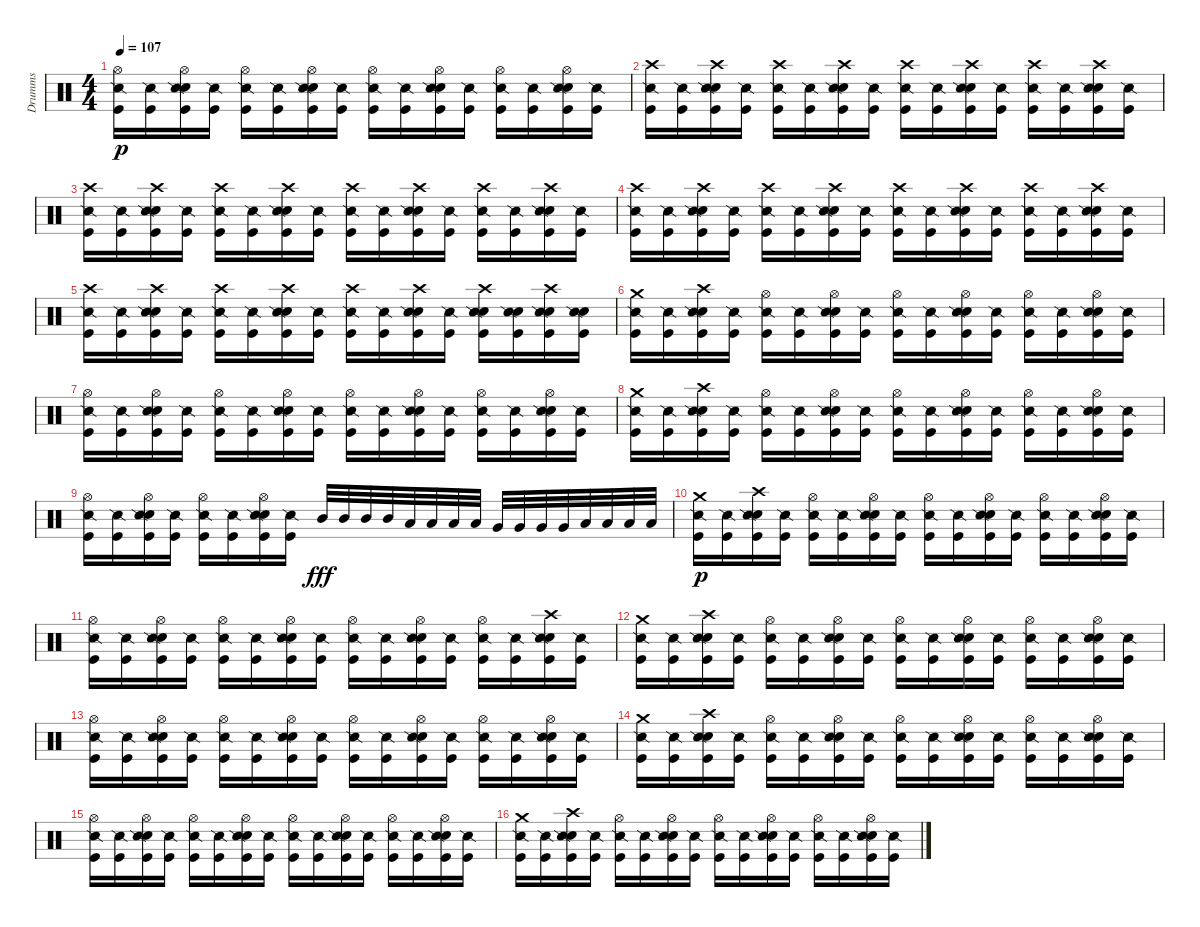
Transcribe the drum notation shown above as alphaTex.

\track ("Drumms" "Drumms") {instrument percussion}
\staff {score}
\articulation defaults
\ts (4 4)
\tempo 107
\clef neutral
\ks c
("Hi-Hat (open)" "Snare (side stick) 2" "Kick (hit)").16{dy p} ("Snare (side stick) 2" "Kick (hit)").16 ("Hi-Hat (open)" "Electric Snare (hit)" "Snare (side stick) 2" "Kick (hit)").16 ("Snare (side stick) 2" "Kick (hit)").16 ("Hi-Hat (open)" "Snare (side stick) 2" "Kick (hit)").16 ("Snare (side stick) 2" "Kick (hit)").16 ("Hi-Hat (open)" "Electric Snare (hit)" "Snare (side stick) 2" "Kick (hit)").16 ("Snare (side stick) 2" "Kick (hit)").16 ("Hi-Hat (open)" "Snare (side stick) 2" "Kick (hit)").16 ("Snare (side stick) 2" "Kick (hit)").16 ("Hi-Hat (open)" "Electric Snare (hit)" "Snare (side stick) 2" "Kick (hit)").16 ("Snare (side stick) 2" "Kick (hit)").16 ("Hi-Hat (open)" "Snare (side stick) 2" "Kick (hit)").16 ("Snare (side stick) 2" "Kick (hit)").16 ("Hi-Hat (open)" "Electric Snare (hit)" "Snare (side stick) 2" "Kick (hit)").16 ("Snare (side stick) 2" "Kick (hit)").16 |
\section ("" "")
("Crash high (hit)" "Snare (side stick) 2" "Kick (hit)").16 ("Snare (side stick) 2" "Kick (hit)").16 ("Crash high (hit)" "Electric Snare (hit)" "Snare (side stick) 2" "Kick (hit)").16 ("Snare (side stick) 2" "Kick (hit)").16 ("Crash high (hit)" "Snare (side stick) 2" "Kick (hit)").16 ("Snare (side stick) 2" "Kick (hit)").16 ("Crash high (hit)" "Electric Snare (hit)" "Snare (side stick) 2" "Kick (hit)").16 ("Snare (side stick) 2" "Kick (hit)").16 ("Crash high (hit)" "Snare (side stick) 2" "Kick (hit)").16 ("Snare (side stick) 2" "Kick (hit)").16 ("Crash high (hit)" "Electric Snare (hit)" "Snare (side stick) 2" "Kick (hit)").16 ("Snare (side stick) 2" "Kick (hit)").16 ("Crash high (hit)" "Snare (side stick) 2" "Kick (hit)").16 ("Snare (side stick) 2" "Kick (hit)").16 ("Crash high (hit)" "Electric Snare (hit)" "Snare (side stick) 2" "Kick (hit)").16 ("Snare (side stick) 2" "Kick (hit)").16 |
("Crash high (hit)" "Snare (side stick) 2" "Kick (hit)").16 ("Snare (side stick) 2" "Kick (hit)").16 ("Crash high (hit)" "Electric Snare (hit)" "Snare (side stick) 2" "Kick (hit)").16 ("Snare (side stick) 2" "Kick (hit)").16 ("Crash high (hit)" "Snare (side stick) 2" "Kick (hit)").16 ("Snare (side stick) 2" "Kick (hit)").16 ("Crash high (hit)" "Electric Snare (hit)" "Snare (side stick) 2" "Kick (hit)").16 ("Snare (side stick) 2" "Kick (hit)").16 ("Crash high (hit)" "Snare (side stick) 2" "Kick (hit)").16 ("Snare (side stick) 2" "Kick (hit)").16 ("Crash high (hit)" "Electric Snare (hit)" "Snare (side stick) 2" "Kick (hit)").16 ("Snare (side stick) 2" "Kick (hit)").16 ("Crash high (hit)" "Snare (side stick) 2" "Kick (hit)").16 ("Snare (side stick) 2" "Kick (hit)").16 ("Crash high (hit)" "Electric Snare (hit)" "Snare (side stick) 2" "Kick (hit)").16 ("Snare (side stick) 2" "Kick (hit)").16 |
("Crash high (hit)" "Snare (side stick) 2" "Kick (hit)").16 ("Snare (side stick) 2" "Kick (hit)").16 ("Crash high (hit)" "Electric Snare (hit)" "Snare (side stick) 2" "Kick (hit)").16 ("Snare (side stick) 2" "Kick (hit)").16 ("Crash high (hit)" "Snare (side stick) 2" "Kick (hit)").16 ("Snare (side stick) 2" "Kick (hit)").16 ("Crash high (hit)" "Electric Snare (hit)" "Snare (side stick) 2" "Kick (hit)").16 ("Snare (side stick) 2" "Kick (hit)").16 ("Crash high (hit)" "Snare (side stick) 2" "Kick (hit)").16 ("Snare (side stick) 2" "Kick (hit)").16 ("Crash high (hit)" "Electric Snare (hit)" "Snare (side stick) 2" "Kick (hit)").16 ("Snare (side stick) 2" "Kick (hit)").16 ("Crash high (hit)" "Snare (side stick) 2" "Kick (hit)").16 ("Snare (side stick) 2" "Kick (hit)").16 ("Crash high (hit)" "Electric Snare (hit)" "Snare (side stick) 2" "Kick (hit)").16 ("Snare (side stick) 2" "Kick (hit)").16 |
("Crash high (hit)" "Snare (side stick) 2" "Kick (hit)").16 ("Snare (side stick) 2" "Kick (hit)").16 ("Crash high (hit)" "Electric Snare (hit)" "Snare (side stick) 2" "Kick (hit)").16 ("Snare (side stick) 2" "Kick (hit)").16 ("Crash high (hit)" "Snare (side stick) 2" "Kick (hit)").16 ("Snare (side stick) 2" "Kick (hit)").16 ("Crash high (hit)" "Electric Snare (hit)" "Snare (side stick) 2" "Kick (hit)").16 ("Snare (side stick) 2" "Kick (hit)").16 ("Crash high (hit)" "Snare (side stick) 2" "Kick (hit)").16 ("Snare (side stick) 2" "Kick (hit)").16 ("Crash high (hit)" "Electric Snare (hit)" "Snare (side stick) 2" "Kick (hit)").16 ("Snare (side stick) 2" "Kick (hit)").16 ("Crash high (hit)" "Electric Snare (hit)" "Snare (side stick) 2" "Kick (hit)").16 ("Electric Snare (hit)" "Snare (side stick) 2" "Kick (hit)").16 ("Crash high (hit)" "Electric Snare (hit)" "Snare (side stick) 2" "Kick (hit)").16 ("Electric Snare (hit)" "Snare (side stick) 2" "Kick (hit)").16 |
\section ("" "")
("Crash medium (hit)" "Snare (side stick) 2" "Kick (hit)").16 ("Snare (side stick) 2" "Kick (hit)").16 ("Crash high (hit)" "Electric Snare (hit)" "Snare (side stick) 2" "Kick (hit)").16 ("Snare (side stick) 2" "Kick (hit)").16 ("Hi-Hat (open)" "Snare (side stick) 2" "Kick (hit)").16 ("Snare (side stick) 2" "Kick (hit)").16 ("Hi-Hat (open)" "Electric Snare (hit)" "Snare (side stick) 2" "Kick (hit)").16 ("Snare (side stick) 2" "Kick (hit)").16 ("Hi-Hat (open)" "Snare (side stick) 2" "Kick (hit)").16 ("Snare (side stick) 2" "Kick (hit)").16 ("Hi-Hat (open)" "Electric Snare (hit)" "Snare (side stick) 2" "Kick (hit)").16 ("Snare (side stick) 2" "Kick (hit)").16 ("Hi-Hat (open)" "Snare (side stick) 2" "Kick (hit)").16 ("Snare (side stick) 2" "Kick (hit)").16 ("Hi-Hat (open)" "Electric Snare (hit)" "Snare (side stick) 2" "Kick (hit)").16 ("Snare (side stick) 2" "Kick (hit)").16 |
("Hi-Hat (open)" "Snare (side stick) 2" "Kick (hit)").16 ("Snare (side stick) 2" "Kick (hit)").16 ("Hi-Hat (open)" "Electric Snare (hit)" "Snare (side stick) 2" "Kick (hit)").16 ("Snare (side stick) 2" "Kick (hit)").16 ("Hi-Hat (open)" "Snare (side stick) 2" "Kick (hit)").16 ("Snare (side stick) 2" "Kick (hit)").16 ("Hi-Hat (open)" "Electric Snare (hit)" "Snare (side stick) 2" "Kick (hit)").16 ("Snare (side stick) 2" "Kick (hit)").16 ("Hi-Hat (open)" "Snare (side stick) 2" "Kick (hit)").16 ("Snare (side stick) 2" "Kick (hit)").16 ("Hi-Hat (open)" "Electric Snare (hit)" "Snare (side stick) 2" "Kick (hit)").16 ("Snare (side stick) 2" "Kick (hit)").16 ("Hi-Hat (open)" "Snare (side stick) 2" "Kick (hit)").16 ("Snare (side stick) 2" "Kick (hit)").16 ("Hi-Hat (open)" "Electric Snare (hit)" "Snare (side stick) 2" "Kick (hit)").16 ("Snare (side stick) 2" "Kick (hit)").16 |
("Crash medium (hit)" "Snare (side stick) 2" "Kick (hit)").16 ("Snare (side stick) 2" "Kick (hit)").16 ("Crash high (hit)" "Electric Snare (hit)" "Snare (side stick) 2" "Kick (hit)").16 ("Snare (side stick) 2" "Kick (hit)").16 ("Hi-Hat (open)" "Snare (side stick) 2" "Kick (hit)").16 ("Snare (side stick) 2" "Kick (hit)").16 ("Hi-Hat (open)" "Electric Snare (hit)" "Snare (side stick) 2" "Kick (hit)").16 ("Snare (side stick) 2" "Kick (hit)").16 ("Hi-Hat (open)" "Snare (side stick) 2" "Kick (hit)").16 ("Snare (side stick) 2" "Kick (hit)").16 ("Hi-Hat (open)" "Electric Snare (hit)" "Snare (side stick) 2" "Kick (hit)").16 ("Snare (side stick) 2" "Kick (hit)").16 ("Hi-Hat (open)" "Snare (side stick) 2" "Kick (hit)").16 ("Snare (side stick) 2" "Kick (hit)").16 ("Hi-Hat (open)" "Electric Snare (hit)" "Snare (side stick) 2" "Kick (hit)").16 ("Snare (side stick) 2" "Kick (hit)").16 |
("Hi-Hat (open)" "Snare (side stick) 2" "Kick (hit)").16 ("Snare (side stick) 2" "Kick (hit)").16 ("Hi-Hat (open)" "Electric Snare (hit)" "Snare (side stick) 2" "Kick (hit)").16 ("Snare (side stick) 2" "Kick (hit)").16 ("Hi-Hat (open)" "Snare (side stick) 2" "Kick (hit)").16 ("Snare (side stick) 2" "Kick (hit)").16 ("Hi-Hat (open)" "Electric Snare (hit)" "Snare (side stick) 2" "Kick (hit)").16 ("Snare (side stick) 2" "Kick (hit)").16 "Mid Tom (hit)".32{dy fff} "Mid Tom (hit)".32 "Mid Tom (hit)".32 "Mid Tom (hit)".32 "Low Tom (hit)".32 "Low Tom (hit)".32 "Low Tom (hit)".32 "Low Tom (hit)".32 "Very Low Tom (hit)".32 "Very Low Tom (hit)".32 "Very Low Tom (hit)".32 "Very Low Tom (hit)".32 "Low Floor Tom (hit)".32 "Low Floor Tom (hit)".32 "Low Floor Tom (hit)".32 "Low Floor Tom (hit)".32 |
\section ("" "")
("Crash medium (hit)" "Snare (side stick) 2" "Kick (hit)").16{dy p} ("Snare (side stick) 2" "Kick (hit)").16 ("Crash high (hit)" "Electric Snare (hit)" "Snare (side stick) 2" "Kick (hit)").16 ("Snare (side stick) 2" "Kick (hit)").16 ("Hi-Hat (open)" "Snare (side stick) 2" "Kick (hit)").16 ("Snare (side stick) 2" "Kick (hit)").16 ("Hi-Hat (open)" "Electric Snare (hit)" "Snare (side stick) 2" "Kick (hit)").16 ("Snare (side stick) 2" "Kick (hit)").16 ("Hi-Hat (open)" "Snare (side stick) 2" "Kick (hit)").16 ("Snare (side stick) 2" "Kick (hit)").16 ("Hi-Hat (open)" "Electric Snare (hit)" "Snare (side stick) 2" "Kick (hit)").16 ("Snare (side stick) 2" "Kick (hit)").16 ("Hi-Hat (open)" "Snare (side stick) 2" "Kick (hit)").16 ("Snare (side stick) 2" "Kick (hit)").16 ("Hi-Hat (open)" "Electric Snare (hit)" "Snare (side stick) 2" "Kick (hit)").16 ("Snare (side stick) 2" "Kick (hit)").16 |
("Hi-Hat (open)" "Snare (side stick) 2" "Kick (hit)").16 ("Snare (side stick) 2" "Kick (hit)").16 ("Hi-Hat (open)" "Electric Snare (hit)" "Snare (side stick) 2" "Kick (hit)").16 ("Snare (side stick) 2" "Kick (hit)").16 ("Hi-Hat (open)" "Snare (side stick) 2" "Kick (hit)").16 ("Snare (side stick) 2" "Kick (hit)").16 ("Hi-Hat (open)" "Electric Snare (hit)" "Snare (side stick) 2" "Kick (hit)").16 ("Snare (side stick) 2" "Kick (hit)").16 ("Hi-Hat (open)" "Snare (side stick) 2" "Kick (hit)").16 ("Snare (side stick) 2" "Kick (hit)").16 ("Hi-Hat (open)" "Electric Snare (hit)" "Snare (side stick) 2" "Kick (hit)").16 ("Snare (side stick) 2" "Kick (hit)").16 ("Hi-Hat (open)" "Snare (side stick) 2" "Kick (hit)").16 ("Snare (side stick) 2" "Kick (hit)").16 ("Crash high (hit)" "Electric Snare (hit)" "Snare (side stick) 2" "Kick (hit)").16 ("Snare (side stick) 2" "Kick (hit)").16 |
("Crash medium (hit)" "Snare (side stick) 2" "Kick (hit)").16 ("Snare (side stick) 2" "Kick (hit)").16 ("Crash high (hit)" "Electric Snare (hit)" "Snare (side stick) 2" "Kick (hit)").16 ("Snare (side stick) 2" "Kick (hit)").16 ("Hi-Hat (open)" "Snare (side stick) 2" "Kick (hit)").16 ("Snare (side stick) 2" "Kick (hit)").16 ("Hi-Hat (open)" "Electric Snare (hit)" "Snare (side stick) 2" "Kick (hit)").16 ("Snare (side stick) 2" "Kick (hit)").16 ("Hi-Hat (open)" "Snare (side stick) 2" "Kick (hit)").16 ("Snare (side stick) 2" "Kick (hit)").16 ("Hi-Hat (open)" "Electric Snare (hit)" "Snare (side stick) 2" "Kick (hit)").16 ("Snare (side stick) 2" "Kick (hit)").16 ("Hi-Hat (open)" "Snare (side stick) 2" "Kick (hit)").16 ("Snare (side stick) 2" "Kick (hit)").16 ("Hi-Hat (open)" "Electric Snare (hit)" "Snare (side stick) 2" "Kick (hit)").16 ("Snare (side stick) 2" "Kick (hit)").16 |
("Hi-Hat (open)" "Snare (side stick) 2" "Kick (hit)").16 ("Snare (side stick) 2" "Kick (hit)").16 ("Hi-Hat (open)" "Electric Snare (hit)" "Snare (side stick) 2" "Kick (hit)").16 ("Snare (side stick) 2" "Kick (hit)").16 ("Hi-Hat (open)" "Snare (side stick) 2" "Kick (hit)").16 ("Snare (side stick) 2" "Kick (hit)").16 ("Hi-Hat (open)" "Electric Snare (hit)" "Snare (side stick) 2" "Kick (hit)").16 ("Snare (side stick) 2" "Kick (hit)").16 ("Hi-Hat (open)" "Snare (side stick) 2" "Kick (hit)").16 ("Snare (side stick) 2" "Kick (hit)").16 ("Hi-Hat (open)" "Electric Snare (hit)" "Snare (side stick) 2" "Kick (hit)").16 ("Snare (side stick) 2" "Kick (hit)").16 ("Hi-Hat (open)" "Snare (side stick) 2" "Kick (hit)").16 ("Snare (side stick) 2" "Kick (hit)").16 ("Hi-Hat (open)" "Electric Snare (hit)" "Snare (side stick) 2" "Kick (hit)").16 ("Snare (side stick) 2" "Kick (hit)").16 |
("Crash medium (hit)" "Snare (side stick) 2" "Kick (hit)").16 ("Snare (side stick) 2" "Kick (hit)").16 ("Crash high (hit)" "Electric Snare (hit)" "Snare (side stick) 2" "Kick (hit)").16 ("Snare (side stick) 2" "Kick (hit)").16 ("Hi-Hat (open)" "Snare (side stick) 2" "Kick (hit)").16 ("Snare (side stick) 2" "Kick (hit)").16 ("Hi-Hat (open)" "Electric Snare (hit)" "Snare (side stick) 2" "Kick (hit)").16 ("Snare (side stick) 2" "Kick (hit)").16 ("Hi-Hat (open)" "Snare (side stick) 2" "Kick (hit)").16 ("Snare (side stick) 2" "Kick (hit)").16 ("Hi-Hat (open)" "Electric Snare (hit)" "Snare (side stick) 2" "Kick (hit)").16 ("Snare (side stick) 2" "Kick (hit)").16 ("Hi-Hat (open)" "Snare (side stick) 2" "Kick (hit)").16 ("Snare (side stick) 2" "Kick (hit)").16 ("Hi-Hat (open)" "Electric Snare (hit)" "Snare (side stick) 2" "Kick (hit)").16 ("Snare (side stick) 2" "Kick (hit)").16 |
("Hi-Hat (open)" "Snare (side stick) 2" "Kick (hit)").16 ("Snare (side stick) 2" "Kick (hit)").16 ("Hi-Hat (open)" "Electric Snare (hit)" "Snare (side stick) 2" "Kick (hit)").16 ("Snare (side stick) 2" "Kick (hit)").16 ("Hi-Hat (open)" "Snare (side stick) 2" "Kick (hit)").16 ("Snare (side stick) 2" "Kick (hit)").16 ("Hi-Hat (open)" "Electric Snare (hit)" "Snare (side stick) 2" "Kick (hit)").16 ("Snare (side stick) 2" "Kick (hit)").16 ("Hi-Hat (open)" "Snare (side stick) 2" "Kick (hit)").16 ("Snare (side stick) 2" "Kick (hit)").16 ("Hi-Hat (open)" "Electric Snare (hit)" "Snare (side stick) 2" "Kick (hit)").16 ("Snare (side stick) 2" "Kick (hit)").16 ("Hi-Hat (open)" "Snare (side stick) 2" "Kick (hit)").16 ("Snare (side stick) 2" "Kick (hit)").16 ("Hi-Hat (open)" "Electric Snare (hit)" "Snare (side stick) 2" "Kick (hit)").16 ("Snare (side stick) 2" "Kick (hit)").16 |
("Crash medium (hit)" "Snare (side stick) 2" "Kick (hit)").16 ("Snare (side stick) 2" "Kick (hit)").16 ("Crash high (hit)" "Electric Snare (hit)" "Snare (side stick) 2" "Kick (hit)").16 ("Snare (side stick) 2" "Kick (hit)").16 ("Hi-Hat (open)" "Snare (side stick) 2" "Kick (hit)").16 ("Snare (side stick) 2" "Kick (hit)").16 ("Hi-Hat (open)" "Electric Snare (hit)" "Snare (side stick) 2" "Kick (hit)").16 ("Snare (side stick) 2" "Kick (hit)").16 ("Hi-Hat (open)" "Snare (side stick) 2" "Kick (hit)").16 ("Snare (side stick) 2" "Kick (hit)").16 ("Hi-Hat (open)" "Electric Snare (hit)" "Snare (side stick) 2" "Kick (hit)").16 ("Snare (side stick) 2" "Kick (hit)").16 ("Hi-Hat (open)" "Snare (side stick) 2" "Kick (hit)").16 ("Snare (side stick) 2" "Kick (hit)").16 ("Hi-Hat (open)" "Electric Snare (hit)" "Snare (side stick) 2" "Kick (hit)").16 ("Snare (side stick) 2" "Kick (hit)").16
